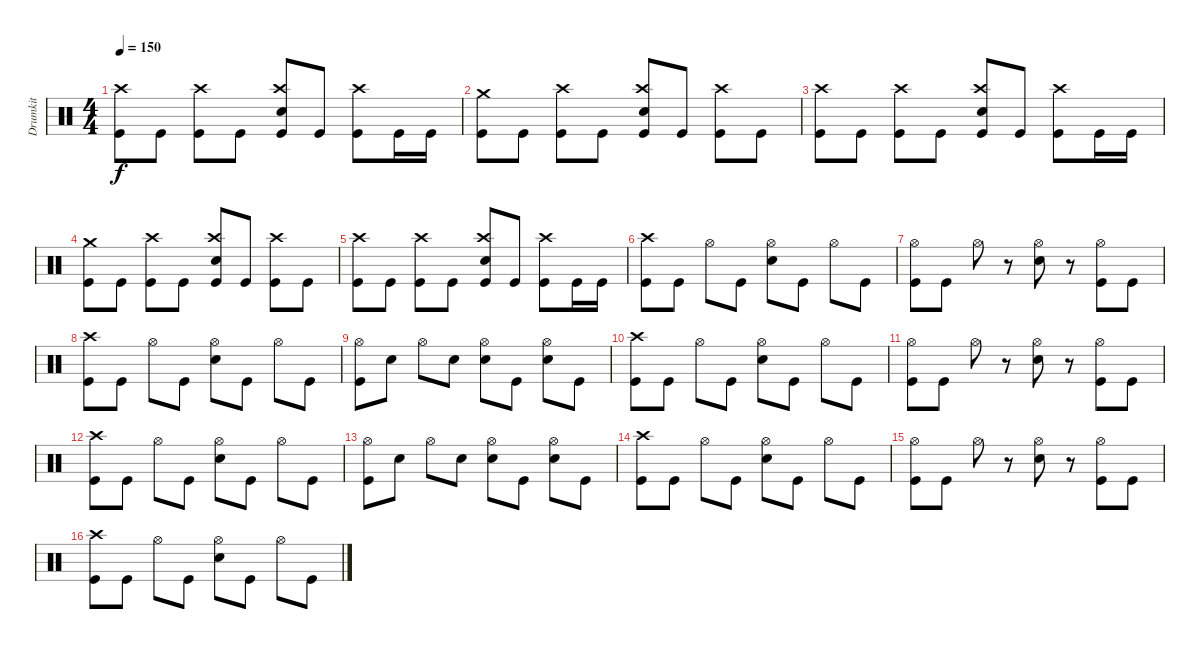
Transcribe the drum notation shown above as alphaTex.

\track ("Drumkit" "Drumkit") {instrument percussion}
\staff {score}
\articulation defaults
\ts (4 4)
\tempo 150
\clef neutral
\ks c
("Kick (hit)" "Crash high (hit)").8{dy f} "Kick (hit)".8 ("Kick (hit)" "Crash high (hit)").8 "Kick (hit)".8 ("Kick (hit)" "Snare (hit) 2" "Crash high (hit)").8 "Kick (hit)".8 ("Kick (hit)" "Crash high (hit)").8 "Kick (hit)".16 "Kick (hit)".16 |
("Kick (hit)" "Crash medium (hit)").8 "Kick (hit)".8 ("Kick (hit)" "Crash high (hit)").8 "Kick (hit)".8 ("Kick (hit)" "Snare (hit) 2" "Crash high (hit)").8 "Kick (hit)".8 ("Kick (hit)" "Crash high (hit)").8 "Kick (hit)".8 |
("Kick (hit)" "Crash high (hit)").8 "Kick (hit)".8 ("Kick (hit)" "Crash high (hit)").8 "Kick (hit)".8 ("Kick (hit)" "Snare (hit) 2" "Crash high (hit)").8 "Kick (hit)".8 ("Kick (hit)" "Crash high (hit)").8 "Kick (hit)".16 "Kick (hit)".16 |
("Kick (hit)" "Crash medium (hit)").8 "Kick (hit)".8 ("Kick (hit)" "Crash high (hit)").8 "Kick (hit)".8 ("Kick (hit)" "Snare (hit) 2" "Crash high (hit)").8 "Kick (hit)".8 ("Kick (hit)" "Crash high (hit)").8 "Kick (hit)".8 |
("Kick (hit)" "Crash high (hit)").8 "Kick (hit)".8 ("Kick (hit)" "Crash high (hit)").8 "Kick (hit)".8 ("Kick (hit)" "Snare (hit) 2" "Crash high (hit)").8 "Kick (hit)".8 ("Kick (hit)" "Crash high (hit)").8 "Kick (hit)".16 "Kick (hit)".16 |
("Kick (hit)" "Crash high (hit)").8 "Kick (hit)".8 "Hi-Hat (open)".8 "Kick (hit)".8 ("Snare (hit) 2" "Hi-Hat (open)").8 "Kick (hit)".8 "Hi-Hat (open)".8 "Kick (hit)".8 |
("Kick (hit)" "Hi-Hat (open)").8 "Kick (hit)".8 "Hi-Hat (open)".8 r.8 ("Snare (hit) 2" "Hi-Hat (open)").8 r.8 ("Kick (hit)" "Hi-Hat (open)").8 "Kick (hit)".8 |
("Kick (hit)" "Crash high (hit)").8 "Kick (hit)".8 "Hi-Hat (open)".8 "Kick (hit)".8 ("Snare (hit) 2" "Hi-Hat (open)").8 "Kick (hit)".8 "Hi-Hat (open)".8 "Kick (hit)".8 |
("Kick (hit)" "Hi-Hat (open)").8 "Snare (hit) 2".8 "Hi-Hat (open)".8 "Snare (hit) 2".8 ("Snare (hit) 2" "Hi-Hat (open)").8 "Kick (hit)".8 ("Snare (hit) 2" "Hi-Hat (open)").8 "Kick (hit)".8 |
("Kick (hit)" "Crash high (hit)").8 "Kick (hit)".8 "Hi-Hat (open)".8 "Kick (hit)".8 ("Snare (hit) 2" "Hi-Hat (open)").8 "Kick (hit)".8 "Hi-Hat (open)".8 "Kick (hit)".8 |
("Kick (hit)" "Hi-Hat (open)").8 "Kick (hit)".8 "Hi-Hat (open)".8 r.8 ("Snare (hit) 2" "Hi-Hat (open)").8 r.8 ("Kick (hit)" "Hi-Hat (open)").8 "Kick (hit)".8 |
("Kick (hit)" "Crash high (hit)").8 "Kick (hit)".8 "Hi-Hat (open)".8 "Kick (hit)".8 ("Snare (hit) 2" "Hi-Hat (open)").8 "Kick (hit)".8 "Hi-Hat (open)".8 "Kick (hit)".8 |
("Kick (hit)" "Hi-Hat (open)").8 "Snare (hit) 2".8 "Hi-Hat (open)".8 "Snare (hit) 2".8 ("Snare (hit) 2" "Hi-Hat (open)").8 "Kick (hit)".8 ("Snare (hit) 2" "Hi-Hat (open)").8 "Kick (hit)".8 |
("Kick (hit)" "Crash high (hit)").8 "Kick (hit)".8 "Hi-Hat (open)".8 "Kick (hit)".8 ("Snare (hit) 2" "Hi-Hat (open)").8 "Kick (hit)".8 "Hi-Hat (open)".8 "Kick (hit)".8 |
("Kick (hit)" "Hi-Hat (open)").8 "Kick (hit)".8 "Hi-Hat (open)".8 r.8 ("Snare (hit) 2" "Hi-Hat (open)").8 r.8 ("Kick (hit)" "Hi-Hat (open)").8 "Kick (hit)".8 |
("Kick (hit)" "Crash high (hit)").8 "Kick (hit)".8 "Hi-Hat (open)".8 "Kick (hit)".8 ("Snare (hit) 2" "Hi-Hat (open)").8 "Kick (hit)".8 "Hi-Hat (open)".8 "Kick (hit)".8
